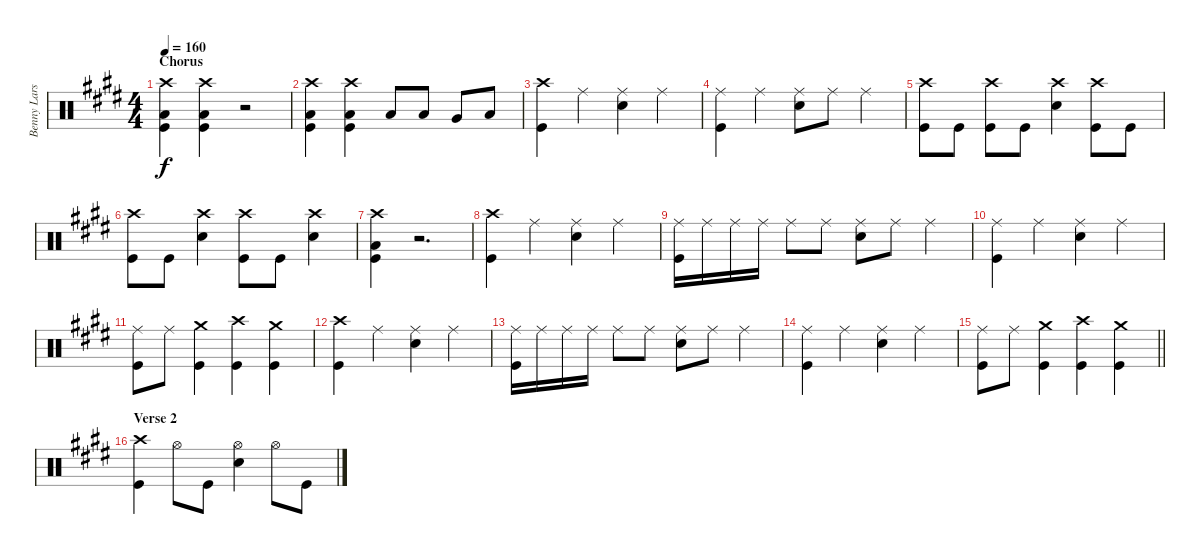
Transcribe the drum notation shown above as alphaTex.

\track ("Benny Larsson" "Benny Lars") {instrument percussion}
\staff {score}
\articulation defaults
\ts (4 4)
\section ("" "Chorus")
\tempo 160
\clef neutral
\ks e
("Crash high (hit)" "Low Floor Tom (hit)" "Kick (hit)").4{dy f} ("Crash high (hit)" "Low Floor Tom (hit)" "Kick (hit)").4 r.2 |
("Crash high (hit)" "Low Floor Tom (hit)" "Kick (hit)").4 ("Crash high (hit)" "Low Floor Tom (hit)" "Kick (hit)").4 "Low Floor Tom (hit)".8 "Low Floor Tom (hit)".8 "Very Low Tom (hit)".8 "Low Tom (hit)".8 |
("Crash high (hit)" "Kick (hit)").4 "Ride (middle)".4 ("Ride (middle)" "Snare (hit) 2").4 "Ride (middle)".4 |
("Ride (middle)" "Kick (hit)").4 "Ride (middle)".4 ("Ride (middle)" "Snare (hit) 2").8 "Ride (middle)".8 "Ride (middle)".4 |
("Crash high (hit)" "Kick (hit)").8 "Kick (hit)".8 ("Crash high (hit)" "Kick (hit)").8 "Kick (hit)".8 ("Crash high (hit)" "Snare (hit) 2").4 ("Crash high (hit)" "Kick (hit)").8 "Kick (hit)".8 |
("Crash high (hit)" "Kick (hit)").8 "Kick (hit)".8 ("Crash high (hit)" "Snare (hit) 2").4 ("Crash high (hit)" "Kick (hit)").8 "Kick (hit)".8 ("Crash high (hit)" "Snare (hit) 2").4 |
("Crash high (hit)" "Low Floor Tom (hit)" "Kick (hit)").4 r.2{d} |
("Crash high (hit)" "Kick (hit)").4 "Ride (middle)".4 ("Ride (middle)" "Snare (hit) 2").4 "Ride (middle)".4 |
("Ride (middle)" "Kick (hit)").16 "Ride (middle)".16 "Ride (middle)".16 "Ride (middle)".16 "Ride (middle)".8 "Ride (middle)".8 ("Ride (middle)" "Snare (hit) 2").8 "Ride (middle)".8 "Ride (middle)".4 |
("Ride (middle)" "Kick (hit)").4 "Ride (middle)".4 ("Ride (middle)" "Snare (hit) 2").4 "Ride (middle)".4 |
("Ride (middle)" "Kick (hit)").8 "Ride (middle)".8 ("Crash medium (hit)" "Kick (hit)").4 ("Crash high (hit)" "Kick (hit)").4 ("Crash medium (hit)" "Kick (hit)").4 |
("Crash high (hit)" "Kick (hit)").4 "Ride (middle)".4 ("Ride (middle)" "Snare (hit) 2").4 "Ride (middle)".4 |
("Ride (middle)" "Kick (hit)").16 "Ride (middle)".16 "Ride (middle)".16 "Ride (middle)".16 "Ride (middle)".8 "Ride (middle)".8 ("Ride (middle)" "Snare (hit) 2").8 "Ride (middle)".8 "Ride (middle)".4 |
("Ride (middle)" "Kick (hit)").4 "Ride (middle)".4 ("Ride (middle)" "Snare (hit) 2").4 "Ride (middle)".4 |
\barLineRight lightlight
("Ride (middle)" "Kick (hit)").8 "Ride (middle)".8 ("Crash medium (hit)" "Kick (hit)").4 ("Crash high (hit)" "Kick (hit)").4 ("Crash medium (hit)" "Kick (hit)").4 |
\section ("" "Verse 2")
("Crash high (hit)" "Kick (hit)").4 "Hi-Hat (open)".8 "Kick (hit)".8 ("Hi-Hat (open)" "Snare (hit) 2").4 "Hi-Hat (open)".8 "Kick (hit)".8
